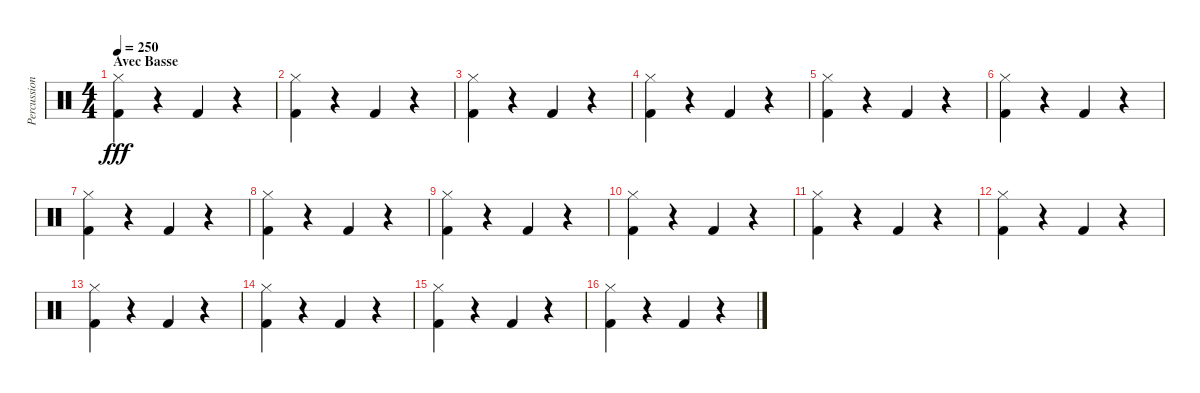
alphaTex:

\track ("Percussions" "Percussion") {instrument percussion}
\staff {score}
\articulation defaults
\ts (4 4)
\section ("" "Avec Basse")
\tempo 250
\clef neutral
\ks c
("Hi-Hat (closed)" "Kick (hit) 2").4{dy fff} r.4 "Kick (hit) 2".4 r.4 |
("Hi-Hat (closed)" "Kick (hit) 2").4 r.4 "Kick (hit) 2".4 r.4 |
("Hi-Hat (closed)" "Kick (hit) 2").4 r.4 "Kick (hit) 2".4 r.4 |
("Hi-Hat (closed)" "Kick (hit) 2").4 r.4 "Kick (hit) 2".4 r.4 |
("Hi-Hat (closed)" "Kick (hit) 2").4 r.4 "Kick (hit) 2".4 r.4 |
("Hi-Hat (closed)" "Kick (hit) 2").4 r.4 "Kick (hit) 2".4 r.4 |
("Hi-Hat (closed)" "Kick (hit) 2").4 r.4 "Kick (hit) 2".4 r.4 |
("Hi-Hat (closed)" "Kick (hit) 2").4 r.4 "Kick (hit) 2".4 r.4 |
("Hi-Hat (closed)" "Kick (hit) 2").4 r.4 "Kick (hit) 2".4 r.4 |
("Hi-Hat (closed)" "Kick (hit) 2").4 r.4 "Kick (hit) 2".4 r.4 |
("Hi-Hat (closed)" "Kick (hit) 2").4 r.4 "Kick (hit) 2".4 r.4 |
("Hi-Hat (closed)" "Kick (hit) 2").4 r.4 "Kick (hit) 2".4 r.4 |
("Hi-Hat (closed)" "Kick (hit) 2").4 r.4 "Kick (hit) 2".4 r.4 |
("Hi-Hat (closed)" "Kick (hit) 2").4 r.4 "Kick (hit) 2".4 r.4 |
("Hi-Hat (closed)" "Kick (hit) 2").4 r.4 "Kick (hit) 2".4 r.4 |
("Hi-Hat (closed)" "Kick (hit) 2").4 r.4 "Kick (hit) 2".4 r.4
